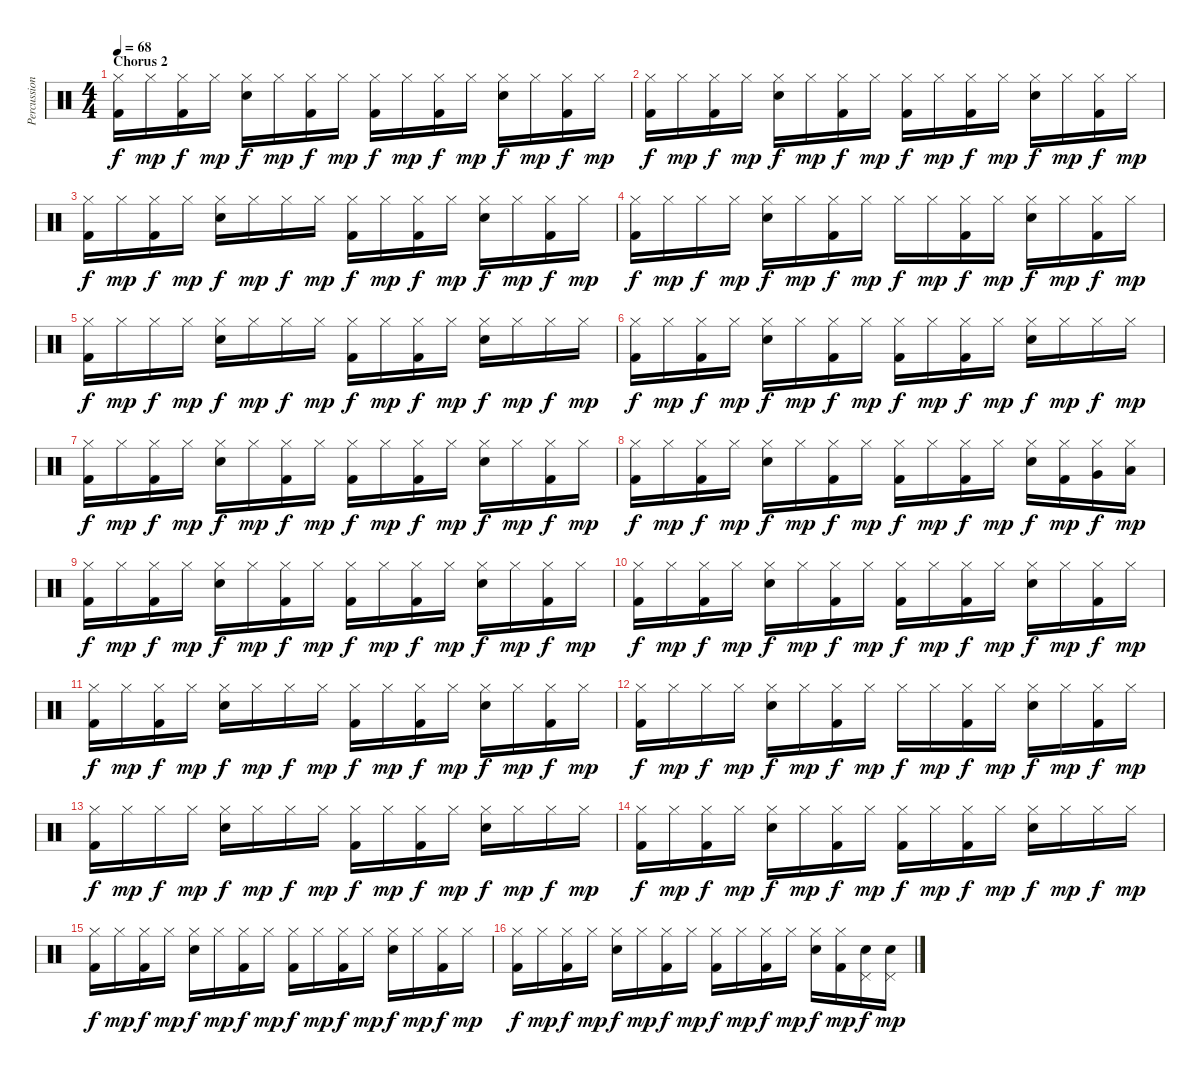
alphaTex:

\track ("Percussion" "Percussion") {instrument percussion}
\staff {score}
\articulation defaults
\ts (4 4)
\section ("" "Chorus 2")
\tempo 68
\clef neutral
\ks c
("Hi-Hat (closed)" "Kick (hit) 2").16{dy f volume 11} "Hi-Hat (closed)".16{dy mp} ("Hi-Hat (closed)" "Kick (hit) 2").16{dy f} "Hi-Hat (closed)".16{dy mp} ("Hi-Hat (closed)" "Snare (hit) 2").16{dy f} "Hi-Hat (closed)".16{dy mp} ("Hi-Hat (closed)" "Kick (hit) 2").16{dy f} "Hi-Hat (closed)".16{dy mp} ("Hi-Hat (closed)" "Kick (hit) 2").16{dy f} "Hi-Hat (closed)".16{dy mp} ("Hi-Hat (closed)" "Kick (hit) 2").16{dy f} "Hi-Hat (closed)".16{dy mp} ("Hi-Hat (closed)" "Snare (hit) 2").16{dy f} "Hi-Hat (closed)".16{dy mp} ("Hi-Hat (closed)" "Kick (hit) 2").16{dy f} "Hi-Hat (closed)".16{dy mp} |
("Hi-Hat (closed)" "Kick (hit) 2").16{dy f} "Hi-Hat (closed)".16{dy mp} ("Hi-Hat (closed)" "Kick (hit) 2").16{dy f} "Hi-Hat (closed)".16{dy mp} ("Hi-Hat (closed)" "Snare (hit) 2").16{dy f} "Hi-Hat (closed)".16{dy mp} ("Hi-Hat (closed)" "Kick (hit) 2").16{dy f} "Hi-Hat (closed)".16{dy mp} ("Hi-Hat (closed)" "Kick (hit) 2").16{dy f} "Hi-Hat (closed)".16{dy mp} ("Hi-Hat (closed)" "Kick (hit) 2").16{dy f} "Hi-Hat (closed)".16{dy mp} ("Hi-Hat (closed)" "Snare (hit) 2").16{dy f} "Hi-Hat (closed)".16{dy mp} ("Hi-Hat (closed)" "Kick (hit) 2").16{dy f} "Hi-Hat (closed)".16{dy mp} |
("Hi-Hat (closed)" "Kick (hit) 2").16{dy f} "Hi-Hat (closed)".16{dy mp} ("Hi-Hat (closed)" "Kick (hit) 2").16{dy f} "Hi-Hat (closed)".16{dy mp} ("Hi-Hat (closed)" "Snare (hit) 2").16{dy f} "Hi-Hat (closed)".16{dy mp} "Hi-Hat (closed)".16{dy f} "Hi-Hat (closed)".16{dy mp} ("Hi-Hat (closed)" "Kick (hit) 2").16{dy f} "Hi-Hat (closed)".16{dy mp} ("Hi-Hat (closed)" "Kick (hit) 2").16{dy f} "Hi-Hat (closed)".16{dy mp} ("Hi-Hat (closed)" "Snare (hit) 2").16{dy f} "Hi-Hat (closed)".16{dy mp} ("Hi-Hat (closed)" "Kick (hit) 2").16{dy f} "Hi-Hat (closed)".16{dy mp} |
("Hi-Hat (closed)" "Kick (hit) 2").16{dy f} "Hi-Hat (closed)".16{dy mp} "Hi-Hat (closed)".16{dy f} "Hi-Hat (closed)".16{dy mp} ("Hi-Hat (closed)" "Snare (hit) 2").16{dy f} "Hi-Hat (closed)".16{dy mp} ("Hi-Hat (closed)" "Kick (hit) 2").16{dy f} "Hi-Hat (closed)".16{dy mp} "Hi-Hat (closed)".16{dy f} "Hi-Hat (closed)".16{dy mp} ("Hi-Hat (closed)" "Kick (hit) 2").16{dy f} "Hi-Hat (closed)".16{dy mp} ("Hi-Hat (closed)" "Snare (hit) 2").16{dy f} "Hi-Hat (closed)".16{dy mp} ("Hi-Hat (closed)" "Kick (hit) 2").16{dy f} "Hi-Hat (closed)".16{dy mp} |
("Hi-Hat (closed)" "Kick (hit) 2").16{dy f} "Hi-Hat (closed)".16{dy mp} "Hi-Hat (closed)".16{dy f} "Hi-Hat (closed)".16{dy mp} ("Hi-Hat (closed)" "Snare (hit) 2").16{dy f} "Hi-Hat (closed)".16{dy mp} "Hi-Hat (closed)".16{dy f} "Hi-Hat (closed)".16{dy mp} ("Hi-Hat (closed)" "Kick (hit) 2").16{dy f} "Hi-Hat (closed)".16{dy mp} ("Hi-Hat (closed)" "Kick (hit) 2").16{dy f} "Hi-Hat (closed)".16{dy mp} ("Hi-Hat (closed)" "Snare (hit) 2").16{dy f} "Hi-Hat (closed)".16{dy mp} "Hi-Hat (closed)".16{dy f} "Hi-Hat (closed)".16{dy mp} |
("Hi-Hat (closed)" "Kick (hit) 2").16{dy f} "Hi-Hat (closed)".16{dy mp} ("Hi-Hat (closed)" "Kick (hit) 2").16{dy f} "Hi-Hat (closed)".16{dy mp} ("Hi-Hat (closed)" "Snare (hit) 2").16{dy f} "Hi-Hat (closed)".16{dy mp} ("Hi-Hat (closed)" "Kick (hit) 2").16{dy f} "Hi-Hat (closed)".16{dy mp} ("Hi-Hat (closed)" "Kick (hit) 2").16{dy f} "Hi-Hat (closed)".16{dy mp} ("Hi-Hat (closed)" "Kick (hit) 2").16{dy f} "Hi-Hat (closed)".16{dy mp} ("Hi-Hat (closed)" "Snare (hit) 2").16{dy f} "Hi-Hat (closed)".16{dy mp} "Hi-Hat (closed)".16{dy f} "Hi-Hat (closed)".16{dy mp} |
("Hi-Hat (closed)" "Kick (hit) 2").16{dy f} "Hi-Hat (closed)".16{dy mp} ("Hi-Hat (closed)" "Kick (hit) 2").16{dy f} "Hi-Hat (closed)".16{dy mp} ("Hi-Hat (closed)" "Snare (hit) 2").16{dy f} "Hi-Hat (closed)".16{dy mp} ("Hi-Hat (closed)" "Kick (hit) 2").16{dy f} "Hi-Hat (closed)".16{dy mp} ("Hi-Hat (closed)" "Kick (hit) 2").16{dy f} "Hi-Hat (closed)".16{dy mp} ("Hi-Hat (closed)" "Kick (hit) 2").16{dy f} "Hi-Hat (closed)".16{dy mp} ("Hi-Hat (closed)" "Snare (hit) 2").16{dy f} "Hi-Hat (closed)".16{dy mp} ("Hi-Hat (closed)" "Kick (hit) 2").16{dy f} "Hi-Hat (closed)".16{dy mp} |
("Hi-Hat (closed)" "Kick (hit) 2").16{dy f} "Hi-Hat (closed)".16{dy mp} ("Hi-Hat (closed)" "Kick (hit) 2").16{dy f} "Hi-Hat (closed)".16{dy mp} ("Hi-Hat (closed)" "Snare (hit) 2").16{dy f} "Hi-Hat (closed)".16{dy mp} ("Hi-Hat (closed)" "Kick (hit) 2").16{dy f} "Hi-Hat (closed)".16{dy mp} ("Hi-Hat (closed)" "Kick (hit) 2").16{dy f} "Hi-Hat (closed)".16{dy mp} ("Hi-Hat (closed)" "Kick (hit) 2").16{dy f} "Hi-Hat (closed)".16{dy mp} ("Hi-Hat (closed)" "Snare (hit) 2").16{dy f} ("Hi-Hat (closed)" "Kick (hit) 2").16{dy mp} ("Hi-Hat (closed)" "Very Low Tom (hit)").16{dy f} ("Hi-Hat (closed)" "Low Floor Tom (hit)").16{dy mp} |
("Hi-Hat (closed)" "Kick (hit) 2").16{dy f} "Hi-Hat (closed)".16{dy mp} ("Hi-Hat (closed)" "Kick (hit) 2").16{dy f} "Hi-Hat (closed)".16{dy mp} ("Hi-Hat (closed)" "Snare (hit) 2").16{dy f} "Hi-Hat (closed)".16{dy mp} ("Hi-Hat (closed)" "Kick (hit) 2").16{dy f} "Hi-Hat (closed)".16{dy mp} ("Hi-Hat (closed)" "Kick (hit) 2").16{dy f} "Hi-Hat (closed)".16{dy mp} ("Hi-Hat (closed)" "Kick (hit) 2").16{dy f} "Hi-Hat (closed)".16{dy mp} ("Hi-Hat (closed)" "Snare (hit) 2").16{dy f} "Hi-Hat (closed)".16{dy mp} ("Hi-Hat (closed)" "Kick (hit) 2").16{dy f} "Hi-Hat (closed)".16{dy mp} |
("Hi-Hat (closed)" "Kick (hit) 2").16{dy f} "Hi-Hat (closed)".16{dy mp} ("Hi-Hat (closed)" "Kick (hit) 2").16{dy f} "Hi-Hat (closed)".16{dy mp} ("Hi-Hat (closed)" "Snare (hit) 2").16{dy f} "Hi-Hat (closed)".16{dy mp} ("Hi-Hat (closed)" "Kick (hit) 2").16{dy f} "Hi-Hat (closed)".16{dy mp} ("Hi-Hat (closed)" "Kick (hit) 2").16{dy f} "Hi-Hat (closed)".16{dy mp} ("Hi-Hat (closed)" "Kick (hit) 2").16{dy f} "Hi-Hat (closed)".16{dy mp} ("Hi-Hat (closed)" "Snare (hit) 2").16{dy f} "Hi-Hat (closed)".16{dy mp} ("Hi-Hat (closed)" "Kick (hit) 2").16{dy f} "Hi-Hat (closed)".16{dy mp} |
("Hi-Hat (closed)" "Kick (hit) 2").16{dy f} "Hi-Hat (closed)".16{dy mp} ("Hi-Hat (closed)" "Kick (hit) 2").16{dy f} "Hi-Hat (closed)".16{dy mp} ("Hi-Hat (closed)" "Snare (hit) 2").16{dy f} "Hi-Hat (closed)".16{dy mp} "Hi-Hat (closed)".16{dy f} "Hi-Hat (closed)".16{dy mp} ("Hi-Hat (closed)" "Kick (hit) 2").16{dy f} "Hi-Hat (closed)".16{dy mp} ("Hi-Hat (closed)" "Kick (hit) 2").16{dy f} "Hi-Hat (closed)".16{dy mp} ("Hi-Hat (closed)" "Snare (hit) 2").16{dy f} "Hi-Hat (closed)".16{dy mp} ("Hi-Hat (closed)" "Kick (hit) 2").16{dy f} "Hi-Hat (closed)".16{dy mp} |
("Hi-Hat (closed)" "Kick (hit) 2").16{dy f} "Hi-Hat (closed)".16{dy mp} "Hi-Hat (closed)".16{dy f} "Hi-Hat (closed)".16{dy mp} ("Hi-Hat (closed)" "Snare (hit) 2").16{dy f} "Hi-Hat (closed)".16{dy mp} ("Hi-Hat (closed)" "Kick (hit) 2").16{dy f} "Hi-Hat (closed)".16{dy mp} "Hi-Hat (closed)".16{dy f} "Hi-Hat (closed)".16{dy mp} ("Hi-Hat (closed)" "Kick (hit) 2").16{dy f} "Hi-Hat (closed)".16{dy mp} ("Hi-Hat (closed)" "Snare (hit) 2").16{dy f} "Hi-Hat (closed)".16{dy mp} ("Hi-Hat (closed)" "Kick (hit) 2").16{dy f} "Hi-Hat (closed)".16{dy mp} |
("Hi-Hat (closed)" "Kick (hit) 2").16{dy f} "Hi-Hat (closed)".16{dy mp} "Hi-Hat (closed)".16{dy f} "Hi-Hat (closed)".16{dy mp} ("Hi-Hat (closed)" "Snare (hit) 2").16{dy f} "Hi-Hat (closed)".16{dy mp} "Hi-Hat (closed)".16{dy f} "Hi-Hat (closed)".16{dy mp} ("Hi-Hat (closed)" "Kick (hit) 2").16{dy f} "Hi-Hat (closed)".16{dy mp} ("Hi-Hat (closed)" "Kick (hit) 2").16{dy f} "Hi-Hat (closed)".16{dy mp} ("Hi-Hat (closed)" "Snare (hit) 2").16{dy f} "Hi-Hat (closed)".16{dy mp} "Hi-Hat (closed)".16{dy f} "Hi-Hat (closed)".16{dy mp} |
("Hi-Hat (closed)" "Kick (hit) 2").16{dy f} "Hi-Hat (closed)".16{dy mp} ("Hi-Hat (closed)" "Kick (hit) 2").16{dy f} "Hi-Hat (closed)".16{dy mp} ("Hi-Hat (closed)" "Snare (hit) 2").16{dy f} "Hi-Hat (closed)".16{dy mp} ("Hi-Hat (closed)" "Kick (hit) 2").16{dy f} "Hi-Hat (closed)".16{dy mp} ("Hi-Hat (closed)" "Kick (hit) 2").16{dy f} "Hi-Hat (closed)".16{dy mp} ("Hi-Hat (closed)" "Kick (hit) 2").16{dy f} "Hi-Hat (closed)".16{dy mp} ("Hi-Hat (closed)" "Snare (hit) 2").16{dy f} "Hi-Hat (closed)".16{dy mp} "Hi-Hat (closed)".16{dy f} "Hi-Hat (closed)".16{dy mp} |
("Hi-Hat (closed)" "Kick (hit) 2").16{dy f} "Hi-Hat (closed)".16{dy mp} ("Hi-Hat (closed)" "Kick (hit) 2").16{dy f} "Hi-Hat (closed)".16{dy mp} ("Hi-Hat (closed)" "Snare (hit) 2").16{dy f} "Hi-Hat (closed)".16{dy mp} ("Hi-Hat (closed)" "Kick (hit) 2").16{dy f} "Hi-Hat (closed)".16{dy mp} ("Hi-Hat (closed)" "Kick (hit) 2").16{dy f} "Hi-Hat (closed)".16{dy mp} ("Hi-Hat (closed)" "Kick (hit) 2").16{dy f} "Hi-Hat (closed)".16{dy mp} ("Hi-Hat (closed)" "Snare (hit) 2").16{dy f} "Hi-Hat (closed)".16{dy mp} ("Hi-Hat (closed)" "Kick (hit) 2").16{dy f} "Hi-Hat (closed)".16{dy mp} |
("Hi-Hat (closed)" "Kick (hit) 2").16{dy f} "Hi-Hat (closed)".16{dy mp} ("Hi-Hat (closed)" "Kick (hit) 2").16{dy f} "Hi-Hat (closed)".16{dy mp} ("Hi-Hat (closed)" "Snare (hit) 2").16{dy f} "Hi-Hat (closed)".16{dy mp} ("Hi-Hat (closed)" "Kick (hit) 2").16{dy f} "Hi-Hat (closed)".16{dy mp} ("Hi-Hat (closed)" "Kick (hit) 2").16{dy f} "Hi-Hat (closed)".16{dy mp} ("Hi-Hat (closed)" "Kick (hit) 2").16{dy f} "Hi-Hat (closed)".16{dy mp} ("Hi-Hat (closed)" "Snare (hit) 2").16{dy f} ("Hi-Hat (closed)" "Kick (hit) 2").16{dy mp} ("Pedal Hi-Hat (hit)" "Snare (hit) 2").16{dy f} ("Pedal Hi-Hat (hit)" "Snare (hit) 2").16{dy mp}
